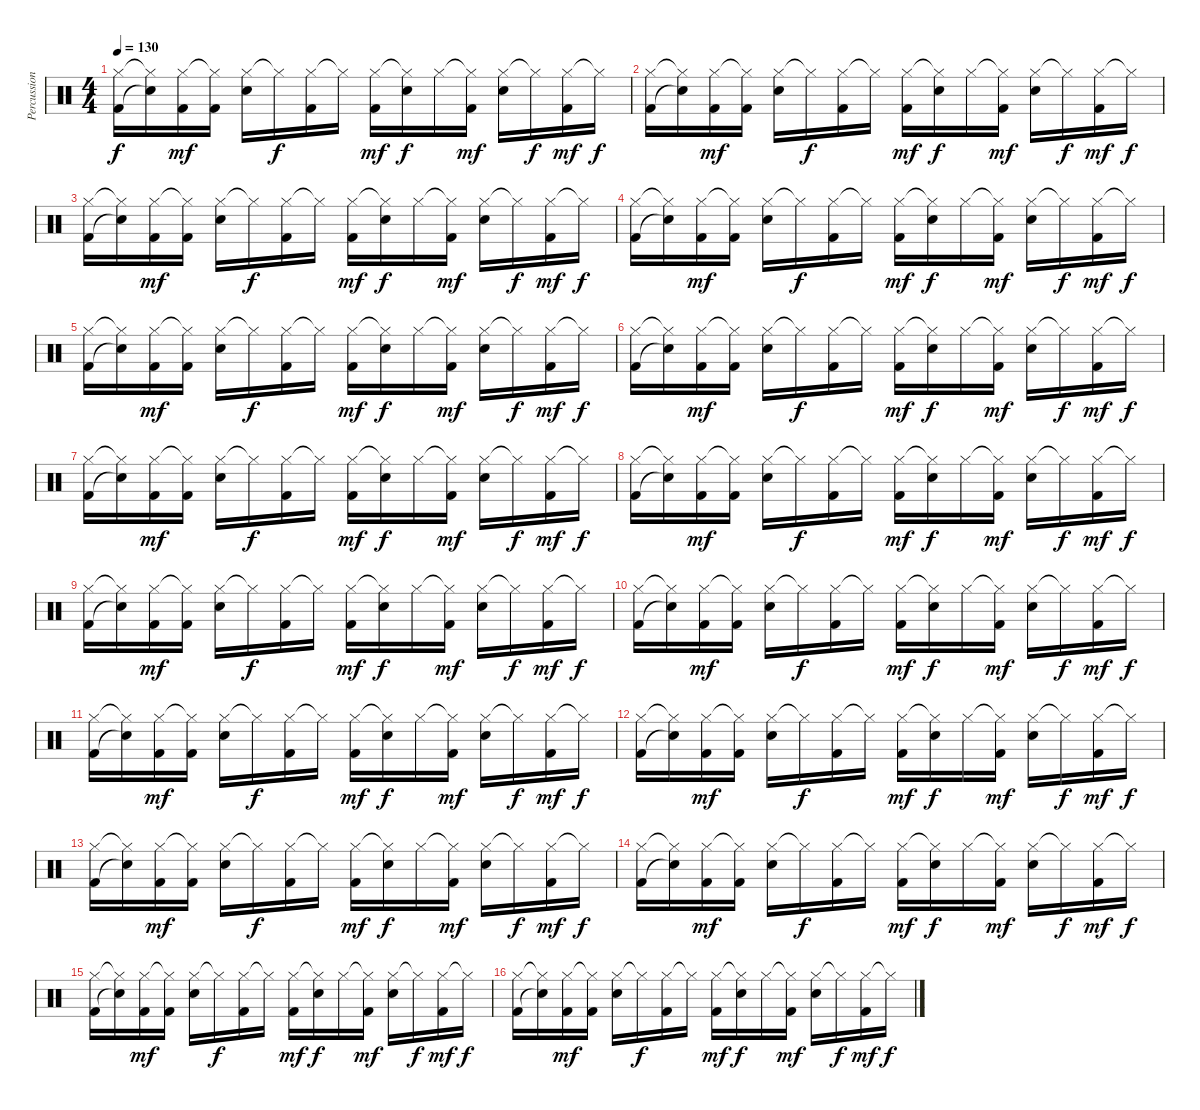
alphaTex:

\track ("Percussion" "Percussion") {instrument percussion}
\staff {score}
\articulation defaults
\ts (4 4)
\tempo 130
\clef neutral
\ks c
("Hi-Hat (closed)" "Kick (hit) 2").16{dy f} ("Hi-Hat (closed)"{t} "Snare (hit)"{t}).16 ("Hi-Hat (closed)" "Kick (hit) 2").16{dy mf} ("Hi-Hat (closed)"{t} "Kick (hit) 2").16 ("Hi-Hat (closed)" "Snare (hit) 2").16 "Hi-Hat (closed)"{t}.16{dy f} ("Hi-Hat (closed)" "Kick (hit) 2").16 "Hi-Hat (closed)"{t}.16 ("Hi-Hat (closed)" "Kick (hit) 2").16{dy mf} ("Hi-Hat (closed)"{t} "Snare (hit) 2").16{dy f} "Hi-Hat (closed)".16 ("Hi-Hat (closed)"{t} "Kick (hit) 2").16{dy mf} ("Hi-Hat (closed)" "Snare (hit) 2").16 "Hi-Hat (closed)"{t}.16{dy f} ("Hi-Hat (closed)" "Kick (hit) 2").16{dy mf} "Hi-Hat (closed)"{t}.16{dy f} |
("Hi-Hat (closed)" "Kick (hit) 2").16 ("Hi-Hat (closed)"{t} "Snare (hit)"{t}).16 ("Hi-Hat (closed)" "Kick (hit) 2").16{dy mf} ("Hi-Hat (closed)"{t} "Kick (hit) 2").16 ("Hi-Hat (closed)" "Snare (hit) 2").16 "Hi-Hat (closed)"{t}.16{dy f} ("Hi-Hat (closed)" "Kick (hit) 2").16 "Hi-Hat (closed)"{t}.16 ("Hi-Hat (closed)" "Kick (hit) 2").16{dy mf} ("Hi-Hat (closed)"{t} "Snare (hit) 2").16{dy f} "Hi-Hat (closed)".16 ("Hi-Hat (closed)"{t} "Kick (hit) 2").16{dy mf} ("Hi-Hat (closed)" "Snare (hit) 2").16 "Hi-Hat (closed)"{t}.16{dy f} ("Hi-Hat (closed)" "Kick (hit) 2").16{dy mf} "Hi-Hat (closed)"{t}.16{dy f} |
("Hi-Hat (closed)" "Kick (hit) 2").16 ("Hi-Hat (closed)"{t} "Snare (hit)"{t}).16 ("Hi-Hat (closed)" "Kick (hit) 2").16{dy mf} ("Hi-Hat (closed)"{t} "Kick (hit) 2").16 ("Hi-Hat (closed)" "Snare (hit) 2").16 "Hi-Hat (closed)"{t}.16{dy f} ("Hi-Hat (closed)" "Kick (hit) 2").16 "Hi-Hat (closed)"{t}.16 ("Hi-Hat (closed)" "Kick (hit) 2").16{dy mf} ("Hi-Hat (closed)"{t} "Snare (hit) 2").16{dy f} "Hi-Hat (closed)".16 ("Hi-Hat (closed)"{t} "Kick (hit) 2").16{dy mf} ("Hi-Hat (closed)" "Snare (hit) 2").16 "Hi-Hat (closed)"{t}.16{dy f} ("Hi-Hat (closed)" "Kick (hit) 2").16{dy mf} "Hi-Hat (closed)"{t}.16{dy f} |
("Hi-Hat (closed)" "Kick (hit) 2").16 ("Hi-Hat (closed)"{t} "Snare (hit)"{t}).16 ("Hi-Hat (closed)" "Kick (hit) 2").16{dy mf} ("Hi-Hat (closed)"{t} "Kick (hit) 2").16 ("Hi-Hat (closed)" "Snare (hit) 2").16 "Hi-Hat (closed)"{t}.16{dy f} ("Hi-Hat (closed)" "Kick (hit) 2").16 "Hi-Hat (closed)"{t}.16 ("Hi-Hat (closed)" "Kick (hit) 2").16{dy mf} ("Hi-Hat (closed)"{t} "Snare (hit) 2").16{dy f} "Hi-Hat (closed)".16 ("Hi-Hat (closed)"{t} "Kick (hit) 2").16{dy mf} ("Hi-Hat (closed)" "Snare (hit) 2").16 "Hi-Hat (closed)"{t}.16{dy f} ("Hi-Hat (closed)" "Kick (hit) 2").16{dy mf} "Hi-Hat (closed)"{t}.16{dy f} |
("Hi-Hat (closed)" "Kick (hit) 2").16 ("Hi-Hat (closed)"{t} "Snare (hit)"{t}).16 ("Hi-Hat (closed)" "Kick (hit) 2").16{dy mf} ("Hi-Hat (closed)"{t} "Kick (hit) 2").16 ("Hi-Hat (closed)" "Snare (hit) 2").16 "Hi-Hat (closed)"{t}.16{dy f} ("Hi-Hat (closed)" "Kick (hit) 2").16 "Hi-Hat (closed)"{t}.16 ("Hi-Hat (closed)" "Kick (hit) 2").16{dy mf} ("Hi-Hat (closed)"{t} "Snare (hit) 2").16{dy f} "Hi-Hat (closed)".16 ("Hi-Hat (closed)"{t} "Kick (hit) 2").16{dy mf} ("Hi-Hat (closed)" "Snare (hit) 2").16 "Hi-Hat (closed)"{t}.16{dy f} ("Hi-Hat (closed)" "Kick (hit) 2").16{dy mf} "Hi-Hat (closed)"{t}.16{dy f} |
("Hi-Hat (closed)" "Kick (hit) 2").16 ("Hi-Hat (closed)"{t} "Snare (hit)"{t}).16 ("Hi-Hat (closed)" "Kick (hit) 2").16{dy mf} ("Hi-Hat (closed)"{t} "Kick (hit) 2").16 ("Hi-Hat (closed)" "Snare (hit) 2").16 "Hi-Hat (closed)"{t}.16{dy f} ("Hi-Hat (closed)" "Kick (hit) 2").16 "Hi-Hat (closed)"{t}.16 ("Hi-Hat (closed)" "Kick (hit) 2").16{dy mf} ("Hi-Hat (closed)"{t} "Snare (hit) 2").16{dy f} "Hi-Hat (closed)".16 ("Hi-Hat (closed)"{t} "Kick (hit) 2").16{dy mf} ("Hi-Hat (closed)" "Snare (hit) 2").16 "Hi-Hat (closed)"{t}.16{dy f} ("Hi-Hat (closed)" "Kick (hit) 2").16{dy mf} "Hi-Hat (closed)"{t}.16{dy f} |
("Hi-Hat (closed)" "Kick (hit) 2").16 ("Hi-Hat (closed)"{t} "Snare (hit)"{t}).16 ("Hi-Hat (closed)" "Kick (hit) 2").16{dy mf} ("Hi-Hat (closed)"{t} "Kick (hit) 2").16 ("Hi-Hat (closed)" "Snare (hit) 2").16 "Hi-Hat (closed)"{t}.16{dy f} ("Hi-Hat (closed)" "Kick (hit) 2").16 "Hi-Hat (closed)"{t}.16 ("Hi-Hat (closed)" "Kick (hit) 2").16{dy mf} ("Hi-Hat (closed)"{t} "Snare (hit) 2").16{dy f} "Hi-Hat (closed)".16 ("Hi-Hat (closed)"{t} "Kick (hit) 2").16{dy mf} ("Hi-Hat (closed)" "Snare (hit) 2").16 "Hi-Hat (closed)"{t}.16{dy f} ("Hi-Hat (closed)" "Kick (hit) 2").16{dy mf} "Hi-Hat (closed)"{t}.16{dy f} |
("Hi-Hat (closed)" "Kick (hit) 2").16 ("Hi-Hat (closed)"{t} "Snare (hit)"{t}).16 ("Hi-Hat (closed)" "Kick (hit) 2").16{dy mf} ("Hi-Hat (closed)"{t} "Kick (hit) 2").16 ("Hi-Hat (closed)" "Snare (hit) 2").16 "Hi-Hat (closed)"{t}.16{dy f} ("Hi-Hat (closed)" "Kick (hit) 2").16 "Hi-Hat (closed)"{t}.16 ("Hi-Hat (closed)" "Kick (hit) 2").16{dy mf} ("Hi-Hat (closed)"{t} "Snare (hit) 2").16{dy f} "Hi-Hat (closed)".16 ("Hi-Hat (closed)"{t} "Kick (hit) 2").16{dy mf} ("Hi-Hat (closed)" "Snare (hit) 2").16 "Hi-Hat (closed)"{t}.16{dy f} ("Hi-Hat (closed)" "Kick (hit) 2").16{dy mf} "Hi-Hat (closed)"{t}.16{dy f} |
("Hi-Hat (closed)" "Kick (hit) 2").16 ("Hi-Hat (closed)"{t} "Snare (hit)"{t}).16 ("Hi-Hat (closed)" "Kick (hit) 2").16{dy mf} ("Hi-Hat (closed)"{t} "Kick (hit) 2").16 ("Hi-Hat (closed)" "Snare (hit) 2").16 "Hi-Hat (closed)"{t}.16{dy f} ("Hi-Hat (closed)" "Kick (hit) 2").16 "Hi-Hat (closed)"{t}.16 ("Hi-Hat (closed)" "Kick (hit) 2").16{dy mf} ("Hi-Hat (closed)"{t} "Snare (hit) 2").16{dy f} "Hi-Hat (closed)".16 ("Hi-Hat (closed)"{t} "Kick (hit) 2").16{dy mf} ("Hi-Hat (closed)" "Snare (hit) 2").16 "Hi-Hat (closed)"{t}.16{dy f} ("Hi-Hat (closed)" "Kick (hit) 2").16{dy mf} "Hi-Hat (closed)"{t}.16{dy f} |
("Hi-Hat (closed)" "Kick (hit) 2").16 ("Hi-Hat (closed)"{t} "Snare (hit)"{t}).16 ("Hi-Hat (closed)" "Kick (hit) 2").16{dy mf} ("Hi-Hat (closed)"{t} "Kick (hit) 2").16 ("Hi-Hat (closed)" "Snare (hit) 2").16 "Hi-Hat (closed)"{t}.16{dy f} ("Hi-Hat (closed)" "Kick (hit) 2").16 "Hi-Hat (closed)"{t}.16 ("Hi-Hat (closed)" "Kick (hit) 2").16{dy mf} ("Hi-Hat (closed)"{t} "Snare (hit) 2").16{dy f} "Hi-Hat (closed)".16 ("Hi-Hat (closed)"{t} "Kick (hit) 2").16{dy mf} ("Hi-Hat (closed)" "Snare (hit) 2").16 "Hi-Hat (closed)"{t}.16{dy f} ("Hi-Hat (closed)" "Kick (hit) 2").16{dy mf} "Hi-Hat (closed)"{t}.16{dy f} |
("Hi-Hat (closed)" "Kick (hit) 2").16 ("Hi-Hat (closed)"{t} "Snare (hit)"{t}).16 ("Hi-Hat (closed)" "Kick (hit) 2").16{dy mf} ("Hi-Hat (closed)"{t} "Kick (hit) 2").16 ("Hi-Hat (closed)" "Snare (hit) 2").16 "Hi-Hat (closed)"{t}.16{dy f} ("Hi-Hat (closed)" "Kick (hit) 2").16 "Hi-Hat (closed)"{t}.16 ("Hi-Hat (closed)" "Kick (hit) 2").16{dy mf} ("Hi-Hat (closed)"{t} "Snare (hit) 2").16{dy f} "Hi-Hat (closed)".16 ("Hi-Hat (closed)"{t} "Kick (hit) 2").16{dy mf} ("Hi-Hat (closed)" "Snare (hit) 2").16 "Hi-Hat (closed)"{t}.16{dy f} ("Hi-Hat (closed)" "Kick (hit) 2").16{dy mf} "Hi-Hat (closed)"{t}.16{dy f} |
("Hi-Hat (closed)" "Kick (hit) 2").16 ("Hi-Hat (closed)"{t} "Snare (hit)"{t}).16 ("Hi-Hat (closed)" "Kick (hit) 2").16{dy mf} ("Hi-Hat (closed)"{t} "Kick (hit) 2").16 ("Hi-Hat (closed)" "Snare (hit) 2").16 "Hi-Hat (closed)"{t}.16{dy f} ("Hi-Hat (closed)" "Kick (hit) 2").16 "Hi-Hat (closed)"{t}.16 ("Hi-Hat (closed)" "Kick (hit) 2").16{dy mf} ("Hi-Hat (closed)"{t} "Snare (hit) 2").16{dy f} "Hi-Hat (closed)".16 ("Hi-Hat (closed)"{t} "Kick (hit) 2").16{dy mf} ("Hi-Hat (closed)" "Snare (hit) 2").16 "Hi-Hat (closed)"{t}.16{dy f} ("Hi-Hat (closed)" "Kick (hit) 2").16{dy mf} "Hi-Hat (closed)"{t}.16{dy f} |
("Hi-Hat (closed)" "Kick (hit) 2").16 ("Hi-Hat (closed)"{t} "Snare (hit)"{t}).16 ("Hi-Hat (closed)" "Kick (hit) 2").16{dy mf} ("Hi-Hat (closed)"{t} "Kick (hit) 2").16 ("Hi-Hat (closed)" "Snare (hit) 2").16 "Hi-Hat (closed)"{t}.16{dy f} ("Hi-Hat (closed)" "Kick (hit) 2").16 "Hi-Hat (closed)"{t}.16 ("Hi-Hat (closed)" "Kick (hit) 2").16{dy mf} ("Hi-Hat (closed)"{t} "Snare (hit) 2").16{dy f} "Hi-Hat (closed)".16 ("Hi-Hat (closed)"{t} "Kick (hit) 2").16{dy mf} ("Hi-Hat (closed)" "Snare (hit) 2").16 "Hi-Hat (closed)"{t}.16{dy f} ("Hi-Hat (closed)" "Kick (hit) 2").16{dy mf} "Hi-Hat (closed)"{t}.16{dy f} |
("Hi-Hat (closed)" "Kick (hit) 2").16 ("Hi-Hat (closed)"{t} "Snare (hit)"{t}).16 ("Hi-Hat (closed)" "Kick (hit) 2").16{dy mf} ("Hi-Hat (closed)"{t} "Kick (hit) 2").16 ("Hi-Hat (closed)" "Snare (hit) 2").16 "Hi-Hat (closed)"{t}.16{dy f} ("Hi-Hat (closed)" "Kick (hit) 2").16 "Hi-Hat (closed)"{t}.16 ("Hi-Hat (closed)" "Kick (hit) 2").16{dy mf} ("Hi-Hat (closed)"{t} "Snare (hit) 2").16{dy f} "Hi-Hat (closed)".16 ("Hi-Hat (closed)"{t} "Kick (hit) 2").16{dy mf} ("Hi-Hat (closed)" "Snare (hit) 2").16 "Hi-Hat (closed)"{t}.16{dy f} ("Hi-Hat (closed)" "Kick (hit) 2").16{dy mf} "Hi-Hat (closed)"{t}.16{dy f} |
("Hi-Hat (closed)" "Kick (hit) 2").16 ("Hi-Hat (closed)"{t} "Snare (hit)"{t}).16 ("Hi-Hat (closed)" "Kick (hit) 2").16{dy mf} ("Hi-Hat (closed)"{t} "Kick (hit) 2").16 ("Hi-Hat (closed)" "Snare (hit) 2").16 "Hi-Hat (closed)"{t}.16{dy f} ("Hi-Hat (closed)" "Kick (hit) 2").16 "Hi-Hat (closed)"{t}.16 ("Hi-Hat (closed)" "Kick (hit) 2").16{dy mf} ("Hi-Hat (closed)"{t} "Snare (hit) 2").16{dy f} "Hi-Hat (closed)".16 ("Hi-Hat (closed)"{t} "Kick (hit) 2").16{dy mf} ("Hi-Hat (closed)" "Snare (hit) 2").16 "Hi-Hat (closed)"{t}.16{dy f} ("Hi-Hat (closed)" "Kick (hit) 2").16{dy mf} "Hi-Hat (closed)"{t}.16{dy f} |
("Hi-Hat (closed)" "Kick (hit) 2").16 ("Hi-Hat (closed)"{t} "Snare (hit)"{t}).16 ("Hi-Hat (closed)" "Kick (hit) 2").16{dy mf} ("Hi-Hat (closed)"{t} "Kick (hit) 2").16 ("Hi-Hat (closed)" "Snare (hit) 2").16 "Hi-Hat (closed)"{t}.16{dy f} ("Hi-Hat (closed)" "Kick (hit) 2").16 "Hi-Hat (closed)"{t}.16 ("Hi-Hat (closed)" "Kick (hit) 2").16{dy mf} ("Hi-Hat (closed)"{t} "Snare (hit) 2").16{dy f} "Hi-Hat (closed)".16 ("Hi-Hat (closed)"{t} "Kick (hit) 2").16{dy mf} ("Hi-Hat (closed)" "Snare (hit) 2").16 "Hi-Hat (closed)"{t}.16{dy f} ("Hi-Hat (closed)" "Kick (hit) 2").16{dy mf} "Hi-Hat (closed)"{t}.16{dy f}
